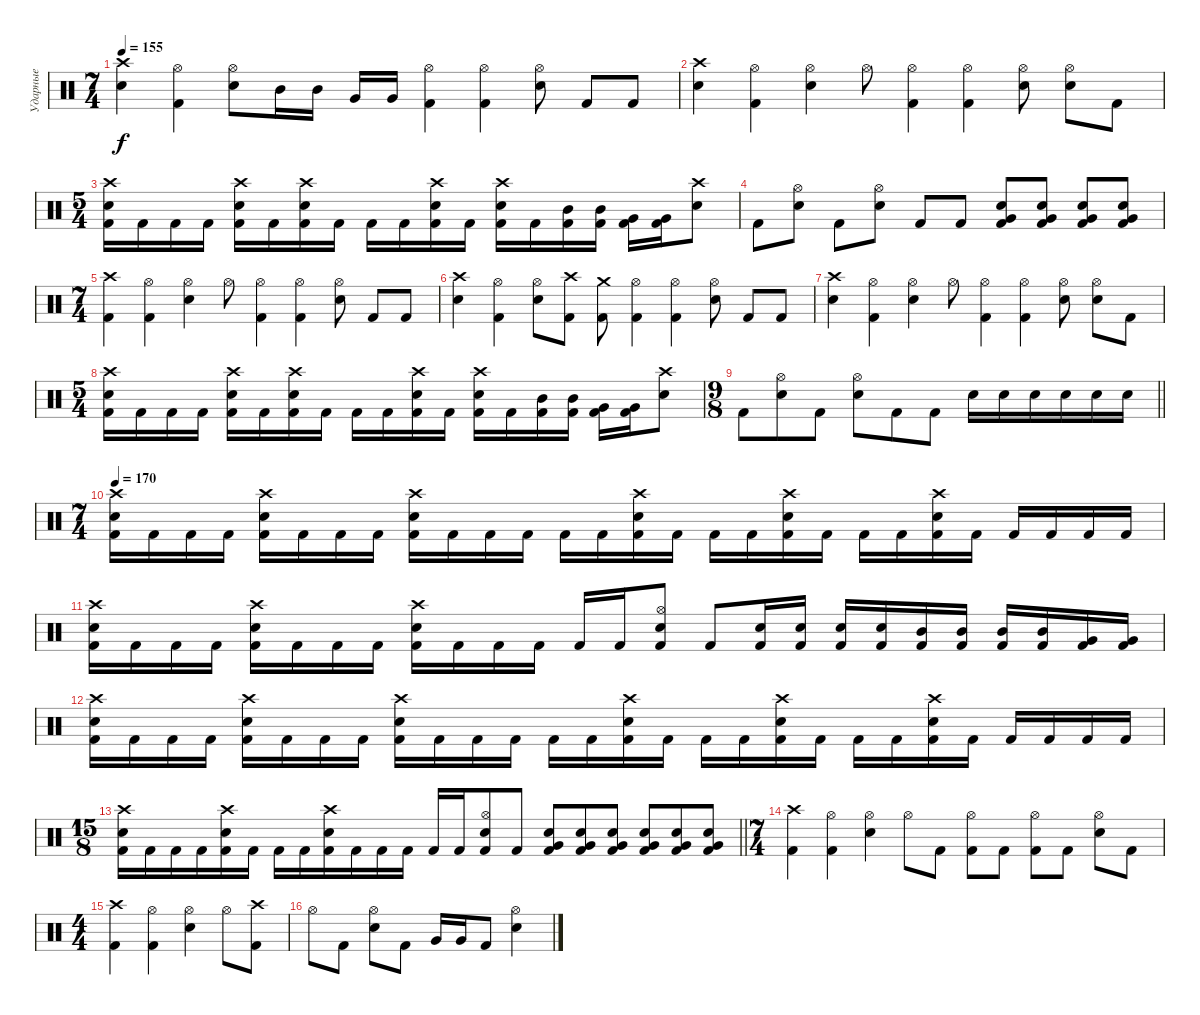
\track ("Ударные" "Ударные") {instrument percussion}
\staff {score}
\articulation defaults
\ts (7 4)
\tempo 155
\clef neutral
\ks c
("Crash high (hit)" "Electric Snare (hit)").4{dy f} ("Hi-Hat (open)" "Kick (hit) 2").4 ("Hi-Hat (open)" "Electric Snare (hit)").8 "Mid Tom (hit)".16 "Mid Tom (hit)".16 "Very Low Tom (hit)".16 "Very Low Tom (hit)".16 ("Hi-Hat (open)" "Kick (hit) 2").4 ("Hi-Hat (open)" "Kick (hit) 2").4 ("Hi-Hat (open)" "Electric Snare (hit)").8 "Kick (hit) 2".8 "Kick (hit) 2".8 |
("Crash high (hit)" "Electric Snare (hit)").4 ("Hi-Hat (open)" "Kick (hit) 2").4 ("Hi-Hat (open)" "Electric Snare (hit)").4 "Hi-Hat (open)".8 ("Hi-Hat (open)" "Kick (hit) 2").4 ("Hi-Hat (open)" "Kick (hit) 2").4 ("Hi-Hat (open)" "Electric Snare (hit)").8 ("Hi-Hat (open)" "Electric Snare (hit)").8 "Kick (hit) 2".8 |
\ts (5 4)
("Crash high (hit)" "Electric Snare (hit)" "Kick (hit) 2").16 "Kick (hit) 2".16 "Kick (hit) 2".16 "Kick (hit) 2".16 ("Crash high (hit)" "Electric Snare (hit)" "Kick (hit) 2").16 "Kick (hit) 2".16 ("Crash high (hit)" "Electric Snare (hit)" "Kick (hit) 2").16 "Kick (hit) 2".16 "Kick (hit) 2".16 "Kick (hit) 2".16 ("Crash high (hit)" "Electric Snare (hit)" "Kick (hit) 2").16 "Kick (hit) 2".16 ("Crash high (hit)" "Electric Snare (hit)" "Kick (hit) 2").16 "Kick (hit) 2".16 ("Mid Tom (hit)" "Kick (hit) 2").16 ("Mid Tom (hit)" "Kick (hit) 2").16 ("Very Low Tom (hit)" "Kick (hit) 2").16 ("Very Low Tom (hit)" "Kick (hit) 2").16 ("Crash high (hit)" "Electric Snare (hit)").8 |
"Kick (hit) 2".8 ("Hi-Hat (open)" "Electric Snare (hit)").8 "Kick (hit) 2".8 ("Hi-Hat (open)" "Electric Snare (hit)").8 "Kick (hit) 2".8 "Kick (hit) 2".8 ("Electric Snare (hit)" "Very Low Tom (hit)" "Kick (hit) 2").8 ("Electric Snare (hit)" "Very Low Tom (hit)" "Kick (hit) 2").8 ("Electric Snare (hit)" "Very Low Tom (hit)" "Kick (hit) 2").8 ("Electric Snare (hit)" "Very Low Tom (hit)" "Kick (hit) 2").8 |
\ts (7 4)
("Crash high (hit)" "Kick (hit) 2").4 ("Hi-Hat (open)" "Kick (hit) 2").4 ("Hi-Hat (open)" "Electric Snare (hit)").4 "Hi-Hat (open)".8 ("Hi-Hat (open)" "Kick (hit) 2").4 ("Hi-Hat (open)" "Kick (hit) 2").4 ("Hi-Hat (open)" "Electric Snare (hit)").8 "Kick (hit) 2".8 "Kick (hit) 2".8 |
("Crash high (hit)" "Electric Snare (hit)").4 ("Hi-Hat (open)" "Kick (hit) 2").4 ("Hi-Hat (open)" "Electric Snare (hit)").8 ("Crash high (hit)" "Kick (hit) 2").8 ("Crash medium (hit)" "Kick (hit) 2").8 ("Hi-Hat (open)" "Kick (hit) 2").4 ("Hi-Hat (open)" "Kick (hit) 2").4 ("Hi-Hat (open)" "Electric Snare (hit)").8 "Kick (hit) 2".8 "Kick (hit) 2".8 |
("Crash high (hit)" "Electric Snare (hit)").4 ("Hi-Hat (open)" "Kick (hit) 2").4 ("Hi-Hat (open)" "Electric Snare (hit)").4 "Hi-Hat (open)".8 ("Hi-Hat (open)" "Kick (hit) 2").4 ("Hi-Hat (open)" "Kick (hit) 2").4 ("Hi-Hat (open)" "Electric Snare (hit)").8 ("Hi-Hat (open)" "Electric Snare (hit)").8 "Kick (hit) 2".8 |
\ts (5 4)
("Crash high (hit)" "Electric Snare (hit)" "Kick (hit) 2").16 "Kick (hit) 2".16 "Kick (hit) 2".16 "Kick (hit) 2".16 ("Crash high (hit)" "Electric Snare (hit)" "Kick (hit) 2").16 "Kick (hit) 2".16 ("Crash high (hit)" "Electric Snare (hit)" "Kick (hit) 2").16 "Kick (hit) 2".16 "Kick (hit) 2".16 "Kick (hit) 2".16 ("Crash high (hit)" "Electric Snare (hit)" "Kick (hit) 2").16 "Kick (hit) 2".16 ("Crash high (hit)" "Electric Snare (hit)" "Kick (hit) 2").16 "Kick (hit) 2".16 ("Mid Tom (hit)" "Kick (hit) 2").16 ("Mid Tom (hit)" "Kick (hit) 2").16 ("Very Low Tom (hit)" "Kick (hit) 2").16 ("Very Low Tom (hit)" "Kick (hit) 2").16 ("Crash high (hit)" "Electric Snare (hit)").8 |
\ts (9 8)
\barLineRight lightlight "Kick (hit) 2".8
("Hi-Hat (open)" "Electric Snare (hit)").8 "Kick (hit) 2".8 ("Hi-Hat (open)" "Electric Snare (hit)").8 "Kick (hit) 2".8 "Kick (hit) 2".8 "Electric Snare (hit)".16 "Electric Snare (hit)".16 "Electric Snare (hit)".16 "Electric Snare (hit)".16 "Electric Snare (hit)".16 "Electric Snare (hit)".16 |
\ts (7 4)
\tempo 170
("Crash high (hit)" "Electric Snare (hit)" "Kick (hit) 2").16 "Kick (hit) 2".16 "Kick (hit) 2".16 "Kick (hit) 2".16 ("Crash high (hit)" "Electric Snare (hit)" "Kick (hit) 2").16 "Kick (hit) 2".16 "Kick (hit) 2".16 "Kick (hit) 2".16 ("Crash high (hit)" "Electric Snare (hit)" "Kick (hit) 2").16 "Kick (hit) 2".16 "Kick (hit) 2".16 "Kick (hit) 2".16 "Kick (hit) 2".16 "Kick (hit) 2".16 ("Crash high (hit)" "Electric Snare (hit)" "Kick (hit) 2").16 "Kick (hit) 2".16 "Kick (hit) 2".16 "Kick (hit) 2".16 ("Crash high (hit)" "Electric Snare (hit)" "Kick (hit) 2").16 "Kick (hit) 2".16 "Kick (hit) 2".16 "Kick (hit) 2".16 ("Crash high (hit)" "Electric Snare (hit)" "Kick (hit) 2").16 "Kick (hit) 2".16 "Kick (hit) 2".16 "Kick (hit) 2".16 "Kick (hit) 2".16 "Kick (hit) 2".16 |
("Crash high (hit)" "Electric Snare (hit)" "Kick (hit) 2").16 "Kick (hit) 2".16 "Kick (hit) 2".16 "Kick (hit) 2".16 ("Crash high (hit)" "Electric Snare (hit)" "Kick (hit) 2").16 "Kick (hit) 2".16 "Kick (hit) 2".16 "Kick (hit) 2".16 ("Crash high (hit)" "Electric Snare (hit)" "Kick (hit) 2").16 "Kick (hit) 2".16 "Kick (hit) 2".16 "Kick (hit) 2".16 "Kick (hit) 2".16 "Kick (hit) 2".16 ("Hi-Hat (open)" "Electric Snare (hit)" "Kick (hit) 2").8 "Kick (hit) 2".8 ("Electric Snare (hit)" "Kick (hit) 2").16 ("Electric Snare (hit)" "Kick (hit) 2").16 ("Electric Snare (hit)" "Kick (hit) 2").16 ("Electric Snare (hit)" "Kick (hit) 2").16 ("Mid Tom (hit)" "Kick (hit) 2").16 ("Mid Tom (hit)" "Kick (hit) 2").16 ("Mid Tom (hit)" "Kick (hit) 2").16 ("Mid Tom (hit)" "Kick (hit) 2").16 ("Very Low Tom (hit)" "Kick (hit) 2").16 ("Very Low Tom (hit)" "Kick (hit) 2").16 |
("Crash high (hit)" "Electric Snare (hit)" "Kick (hit) 2").16 "Kick (hit) 2".16 "Kick (hit) 2".16 "Kick (hit) 2".16 ("Crash high (hit)" "Electric Snare (hit)" "Kick (hit) 2").16 "Kick (hit) 2".16 "Kick (hit) 2".16 "Kick (hit) 2".16 ("Crash high (hit)" "Electric Snare (hit)" "Kick (hit) 2").16 "Kick (hit) 2".16 "Kick (hit) 2".16 "Kick (hit) 2".16 "Kick (hit) 2".16 "Kick (hit) 2".16 ("Crash high (hit)" "Electric Snare (hit)" "Kick (hit) 2").16 "Kick (hit) 2".16 "Kick (hit) 2".16 "Kick (hit) 2".16 ("Crash high (hit)" "Electric Snare (hit)" "Kick (hit) 2").16 "Kick (hit) 2".16 "Kick (hit) 2".16 "Kick (hit) 2".16 ("Crash high (hit)" "Electric Snare (hit)" "Kick (hit) 2").16 "Kick (hit) 2".16 "Kick (hit) 2".16 "Kick (hit) 2".16 "Kick (hit) 2".16 "Kick (hit) 2".16 |
\ts (15 8)
\barLineRight lightlight
("Crash high (hit)" "Electric Snare (hit)" "Kick (hit) 2").16 "Kick (hit) 2".16 "Kick (hit) 2".16 "Kick (hit) 2".16 ("Crash high (hit)" "Electric Snare (hit)" "Kick (hit) 2").16 "Kick (hit) 2".16 "Kick (hit) 2".16 "Kick (hit) 2".16 ("Crash high (hit)" "Electric Snare (hit)" "Kick (hit) 2").16 "Kick (hit) 2".16 "Kick (hit) 2".16 "Kick (hit) 2".16 "Kick (hit) 2".16 "Kick (hit) 2".16 ("Hi-Hat (open)" "Electric Snare (hit)" "Kick (hit) 2").8 "Kick (hit) 2".8 ("Electric Snare (hit)" "Very Low Tom (hit)" "Kick (hit) 2").8 ("Electric Snare (hit)" "Very Low Tom (hit)" "Kick (hit) 2").8 ("Electric Snare (hit)" "Very Low Tom (hit)" "Kick (hit) 2").8 ("Electric Snare (hit)" "Very Low Tom (hit)" "Kick (hit) 2").8 ("Electric Snare (hit)" "Very Low Tom (hit)" "Kick (hit) 2").8 ("Electric Snare (hit)" "Very Low Tom (hit)" "Kick (hit) 2").8 |
\ts (7 4)
("Crash high (hit)" "Kick (hit) 2").4 ("Hi-Hat (open)" "Kick (hit) 2").4 ("Hi-Hat (open)" "Electric Snare (hit)").4 "Hi-Hat (open)".8 "Kick (hit) 2".8 ("Hi-Hat (open)" "Kick (hit) 2").8 "Kick (hit) 2".8 ("Hi-Hat (open)" "Kick (hit) 2").8 "Kick (hit) 2".8 ("Hi-Hat (open)" "Electric Snare (hit)").8 "Kick (hit) 2".8 |
\ts (4 4)
("Crash high (hit)" "Kick (hit) 2").4 ("Hi-Hat (open)" "Kick (hit) 2").4 ("Hi-Hat (open)" "Electric Snare (hit)").4 "Hi-Hat (open)".8 ("Crash high (hit)" "Kick (hit) 2").8 |
"Hi-Hat (open)".8 "Kick (hit) 2".8 ("Hi-Hat (open)" "Electric Snare (hit)").8 "Kick (hit) 2".8 "Very Low Tom (hit)".16 "Very Low Tom (hit)".16 "Kick (hit) 2".8 ("Hi-Hat (open)" "Electric Snare (hit)").4
